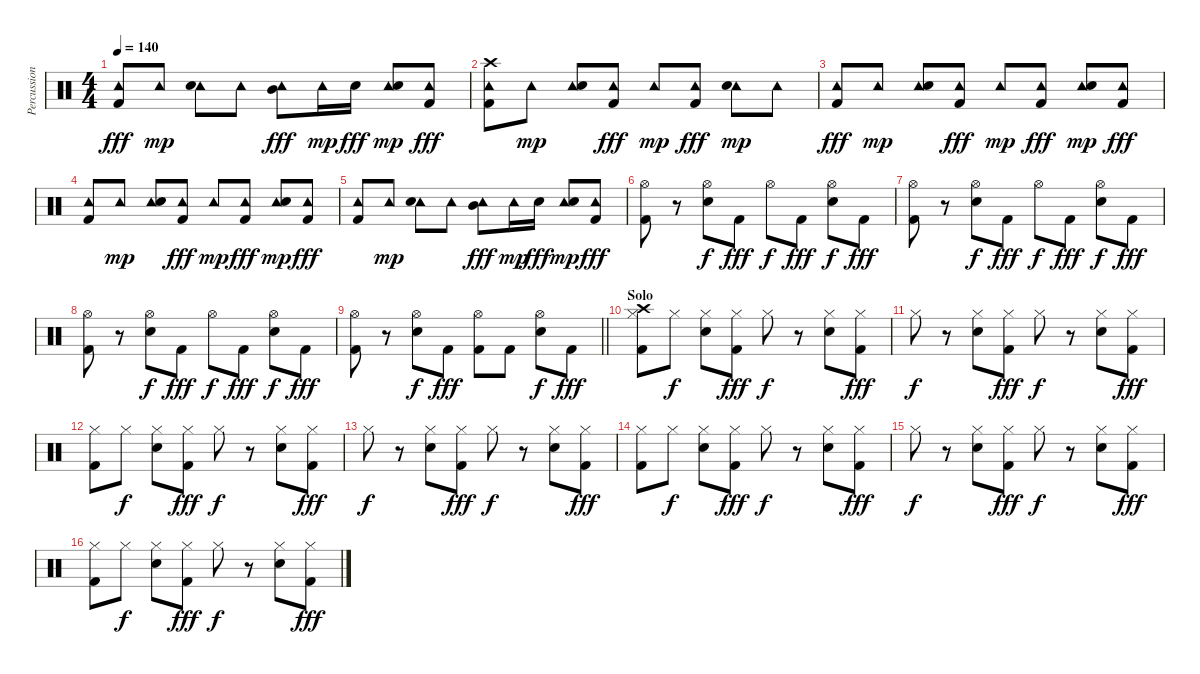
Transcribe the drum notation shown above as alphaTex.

\track ("Percussion" "Percussion") {instrument percussion}
\staff {score}
\articulation defaults
\ts (4 4)
\tempo 140
\clef neutral
\ks c
("Tambourine (hit)" "Kick (hit) 2").8{dy fff} "Tambourine (hit)".8{dy mp} ("Tambourine (hit)" "Electric Snare (hit)").8 "Tambourine (hit)".8 ("Tambourine (hit)" "Mid Tom (hit)").8{dy fff} "Tambourine (hit)".16{dy mp} "Electric Snare (hit)".16{dy fff} ("Tambourine (hit)" "Electric Snare (hit)").8{dy mp} ("Tambourine (hit)" "Kick (hit) 2").8{dy fff} |
("Tambourine (hit)" "Kick (hit) 2" "Crash high (hit)").8 "Tambourine (hit)".8{dy mp} ("Tambourine (hit)" "Electric Snare (hit)").8 ("Tambourine (hit)" "Kick (hit) 2").8{dy fff} "Tambourine (hit)".8{dy mp} ("Tambourine (hit)" "Kick (hit) 2").8{dy fff} ("Tambourine (hit)" "Electric Snare (hit)").8{dy mp} "Tambourine (hit)".8 |
("Tambourine (hit)" "Kick (hit) 2").8{dy fff} "Tambourine (hit)".8{dy mp} ("Tambourine (hit)" "Electric Snare (hit)").8 ("Tambourine (hit)" "Kick (hit) 2").8{dy fff} "Tambourine (hit)".8{dy mp} ("Tambourine (hit)" "Kick (hit) 2").8{dy fff} ("Tambourine (hit)" "Electric Snare (hit)").8{dy mp} ("Tambourine (hit)" "Kick (hit) 2").8{dy fff} |
("Tambourine (hit)" "Kick (hit) 2").8 "Tambourine (hit)".8{dy mp} ("Tambourine (hit)" "Electric Snare (hit)").8 ("Tambourine (hit)" "Kick (hit) 2").8{dy fff} "Tambourine (hit)".8{dy mp} ("Tambourine (hit)" "Kick (hit) 2").8{dy fff} ("Tambourine (hit)" "Electric Snare (hit)").8{dy mp} ("Tambourine (hit)" "Kick (hit) 2").8{dy fff} |
("Tambourine (hit)" "Kick (hit) 2").8 "Tambourine (hit)".8{dy mp} ("Tambourine (hit)" "Electric Snare (hit)").8 "Tambourine (hit)".8 ("Tambourine (hit)" "Mid Tom (hit)").8{dy fff} "Tambourine (hit)".16{dy mp} "Electric Snare (hit)".16{dy fff} ("Tambourine (hit)" "Electric Snare (hit)").8{dy mp} ("Tambourine (hit)" "Kick (hit) 2").8{dy fff} |
("Hi-Hat (open)" "Kick (hit) 2").8 r.8 ("Hi-Hat (open)" "Electric Snare (hit)").8{dy f} "Kick (hit) 2".8{dy fff} "Hi-Hat (open)".8{dy f} "Kick (hit) 2".8{dy fff} ("Hi-Hat (open)" "Electric Snare (hit)").8{dy f} "Kick (hit) 2".8{dy fff} |
("Hi-Hat (open)" "Kick (hit) 2").8 r.8 ("Hi-Hat (open)" "Electric Snare (hit)").8{dy f} "Kick (hit) 2".8{dy fff} "Hi-Hat (open)".8{dy f} "Kick (hit) 2".8{dy fff} ("Hi-Hat (open)" "Electric Snare (hit)").8{dy f} "Kick (hit) 2".8{dy fff} |
("Hi-Hat (open)" "Kick (hit) 2").8 r.8 ("Hi-Hat (open)" "Electric Snare (hit)").8{dy f} "Kick (hit) 2".8{dy fff} "Hi-Hat (open)".8{dy f} "Kick (hit) 2".8{dy fff} ("Hi-Hat (open)" "Electric Snare (hit)").8{dy f} "Kick (hit) 2".8{dy fff} |
\barLineRight lightlight
("Hi-Hat (open)" "Kick (hit) 2").8 r.8 ("Hi-Hat (open)" "Electric Snare (hit)").8{dy f} "Kick (hit) 2".8{dy fff} ("Hi-Hat (open)" "Kick (hit) 2").8 "Kick (hit) 2".8 ("Hi-Hat (open)" "Electric Snare (hit)").8{dy f} "Kick (hit) 2".8{dy fff} |
\section ("" "Solo")
("Hi-Hat (closed)" "Kick (hit) 2" "Crash high (hit)").8 "Hi-Hat (closed)".8{dy f} ("Hi-Hat (closed)" "Electric Snare (hit)").8 ("Hi-Hat (closed)" "Kick (hit) 2").8{dy fff} "Hi-Hat (closed)".8{dy f} r.8 ("Hi-Hat (closed)" "Electric Snare (hit)").8 ("Hi-Hat (closed)" "Kick (hit) 2").8{dy fff} |
"Hi-Hat (closed)".8{dy f} r.8 ("Hi-Hat (closed)" "Electric Snare (hit)").8 ("Hi-Hat (closed)" "Kick (hit) 2").8{dy fff} "Hi-Hat (closed)".8{dy f} r.8 ("Hi-Hat (closed)" "Electric Snare (hit)").8 ("Hi-Hat (closed)" "Kick (hit) 2").8{dy fff} |
("Hi-Hat (closed)" "Kick (hit) 2").8 "Hi-Hat (closed)".8{dy f} ("Hi-Hat (closed)" "Electric Snare (hit)").8 ("Hi-Hat (closed)" "Kick (hit) 2").8{dy fff} "Hi-Hat (closed)".8{dy f} r.8 ("Hi-Hat (closed)" "Electric Snare (hit)").8 ("Hi-Hat (closed)" "Kick (hit) 2").8{dy fff} |
"Hi-Hat (closed)".8{dy f} r.8 ("Hi-Hat (closed)" "Electric Snare (hit)").8 ("Hi-Hat (closed)" "Kick (hit) 2").8{dy fff} "Hi-Hat (closed)".8{dy f} r.8 ("Hi-Hat (closed)" "Electric Snare (hit)").8 ("Hi-Hat (closed)" "Kick (hit) 2").8{dy fff} |
("Hi-Hat (closed)" "Kick (hit) 2").8 "Hi-Hat (closed)".8{dy f} ("Hi-Hat (closed)" "Electric Snare (hit)").8 ("Hi-Hat (closed)" "Kick (hit) 2").8{dy fff} "Hi-Hat (closed)".8{dy f} r.8 ("Hi-Hat (closed)" "Electric Snare (hit)").8 ("Hi-Hat (closed)" "Kick (hit) 2").8{dy fff} |
"Hi-Hat (closed)".8{dy f} r.8 ("Hi-Hat (closed)" "Electric Snare (hit)").8 ("Hi-Hat (closed)" "Kick (hit) 2").8{dy fff} "Hi-Hat (closed)".8{dy f} r.8 ("Hi-Hat (closed)" "Electric Snare (hit)").8 ("Hi-Hat (closed)" "Kick (hit) 2").8{dy fff} |
("Hi-Hat (closed)" "Kick (hit) 2").8 "Hi-Hat (closed)".8{dy f} ("Hi-Hat (closed)" "Electric Snare (hit)").8 ("Hi-Hat (closed)" "Kick (hit) 2").8{dy fff} "Hi-Hat (closed)".8{dy f} r.8 ("Hi-Hat (closed)" "Electric Snare (hit)").8 ("Hi-Hat (closed)" "Kick (hit) 2").8{dy fff}
